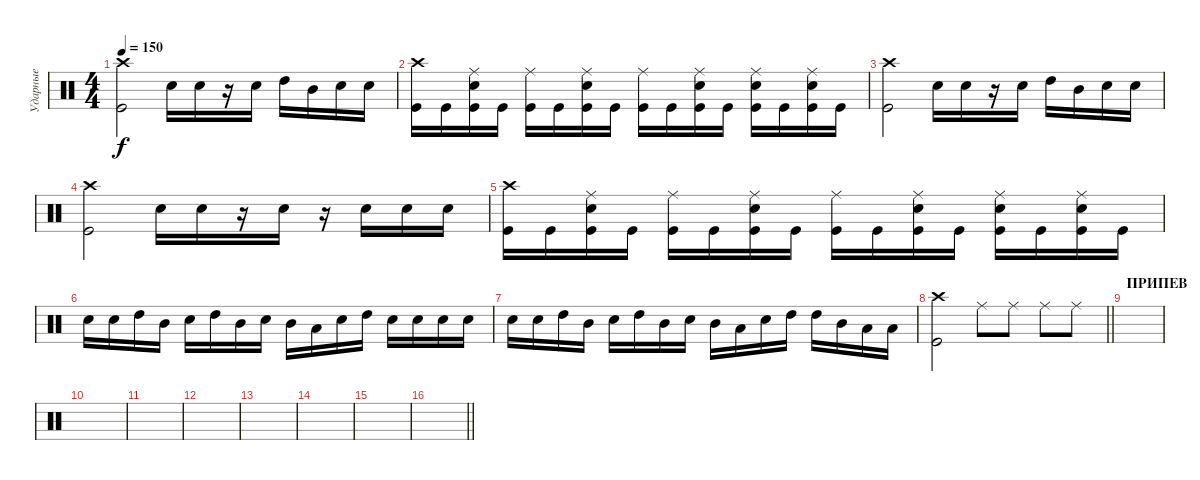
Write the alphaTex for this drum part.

\track ("Ударные" "Ударные") {instrument percussion}
\staff {score}
\articulation defaults
\ts (4 4)
\tempo 150
\clef neutral
\ks c
("Kick (hit)" "Crash high (hit)").2{dy f} "Snare (hit) 2".16 "Snare (hit) 2".16 r.16 "Snare (hit) 2".16 "High Tom (hit)".16 "Mid Tom (hit)".16 "Snare (hit) 2".16 "Snare (hit) 2".16 |
("Kick (hit)" "Crash high (hit)").16 "Kick (hit)".16 ("Kick (hit)" "Ride (middle)" "Snare (hit) 2").16 "Kick (hit)".16 ("Kick (hit)" "Ride (middle)").16 "Kick (hit)".16 ("Kick (hit)" "Snare (hit) 2" "Ride (middle)").16 "Kick (hit)".16 ("Kick (hit)" "Ride (middle)").16 "Kick (hit)".16 ("Kick (hit)" "Ride (middle)" "Snare (hit) 2").16 "Kick (hit)".16 ("Kick (hit)" "Ride (middle)" "Snare (hit) 2").16 "Kick (hit)".16 ("Kick (hit)" "Ride (middle)" "Snare (hit) 2").16 "Kick (hit)".16 |
("Kick (hit)" "Crash high (hit)").2 "Snare (hit) 2".16 "Snare (hit) 2".16 r.16 "Snare (hit) 2".16 "High Tom (hit)".16 "Mid Tom (hit)".16 "Snare (hit) 2".16 "Snare (hit) 2".16 |
("Kick (hit)" "Crash high (hit)").2 "Snare (hit) 2".16 "Snare (hit) 2".16 r.16 "Snare (hit) 2".16 r.16 "Snare (hit) 2".16 "Snare (hit) 2".16 "Snare (hit) 2".16 |
("Kick (hit)" "Crash high (hit)").16 "Kick (hit)".16 ("Kick (hit)" "Ride (middle)" "Snare (hit) 2").16 "Kick (hit)".16 ("Kick (hit)" "Ride (middle)").16 "Kick (hit)".16 ("Kick (hit)" "Snare (hit) 2" "Ride (middle)").16 "Kick (hit)".16 ("Kick (hit)" "Ride (middle)").16 "Kick (hit)".16 ("Kick (hit)" "Ride (middle)" "Snare (hit) 2").16 "Kick (hit)".16 ("Kick (hit)" "Ride (middle)" "Snare (hit) 2").16 "Kick (hit)".16 ("Kick (hit)" "Ride (middle)" "Snare (hit) 2").16 "Kick (hit)".16 |
"Snare (hit) 2".16 "Snare (hit) 2".16 "High Tom (hit)".16 "Mid Tom (hit)".16 "Snare (hit) 2".16 "High Tom (hit)".16 "Mid Tom (hit)".16 "Snare (hit) 2".16 "Mid Tom (hit)".16 "Low Tom (hit)".16 "Snare (hit) 2".16 "High Tom (hit)".16 "Snare (hit) 2".16 "Snare (hit) 2".16 "Snare (hit) 2".16 "Snare (hit) 2".16 |
"Snare (hit) 2".16 "Snare (hit) 2".16 "High Tom (hit)".16 "Mid Tom (hit)".16 "Snare (hit) 2".16 "High Tom (hit)".16 "Mid Tom (hit)".16 "Snare (hit) 2".16 "Mid Tom (hit)".16 "Low Tom (hit)".16 "Snare (hit) 2".16 "High Tom (hit)".16 "High Tom (hit)".16 "Mid Tom (hit)".16 "Low Tom (hit)".16 "Low Tom (hit)".16 |
\barLineRight lightlight
("Crash high (hit)" "Kick (hit)").2 "Ride (middle)".8 "Ride (middle)".8 "Ride (middle)".8 "Ride (middle)".8 |
\section ("" "ПРИПЕВ")
|
|
|
|
|
|
|
\barLineRight lightlight
